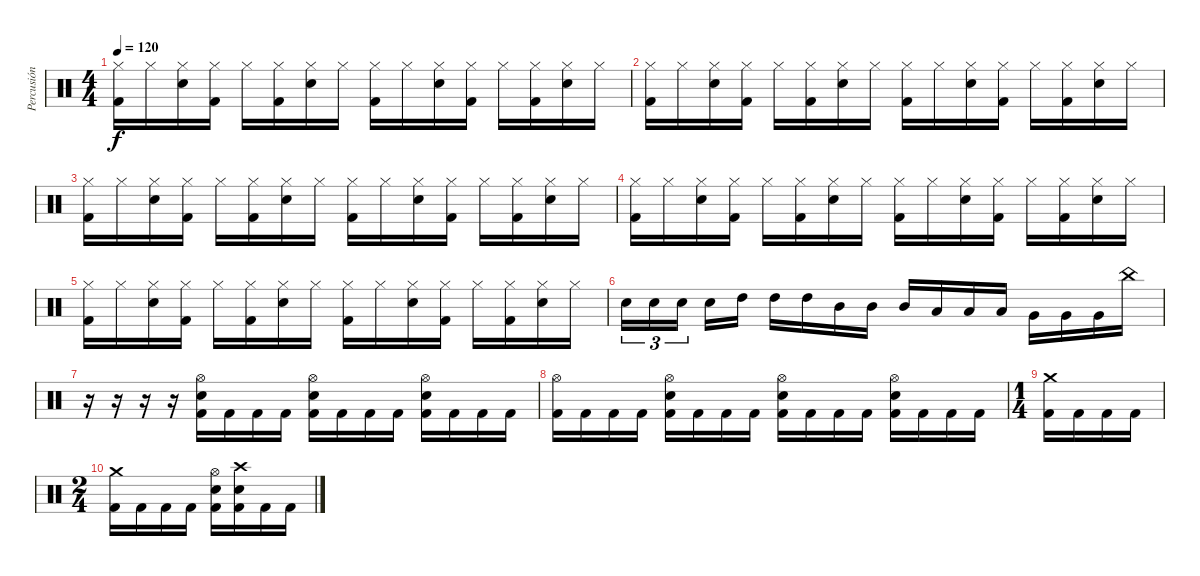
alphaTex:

\track ("Percusión" "Percusión") {instrument percussion}
\staff {score}
\articulation defaults
\ts (4 4)
\tempo 120
\clef neutral
\ks c
("Kick (hit) 2" "Hi-Hat (closed)").16{dy f} "Hi-Hat (closed)".16 ("Snare (hit) 2" "Hi-Hat (closed)").16 ("Kick (hit) 2" "Hi-Hat (closed)").16 "Hi-Hat (closed)".16 ("Kick (hit) 2" "Hi-Hat (closed)").16 ("Snare (hit) 2" "Hi-Hat (closed)").16 "Hi-Hat (closed)".16 ("Kick (hit) 2" "Hi-Hat (closed)").16 "Hi-Hat (closed)".16 ("Snare (hit) 2" "Hi-Hat (closed)").16 ("Kick (hit) 2" "Hi-Hat (closed)").16 "Hi-Hat (closed)".16 ("Kick (hit) 2" "Hi-Hat (closed)").16 ("Snare (hit) 2" "Hi-Hat (closed)").16 "Hi-Hat (closed)".16 |
("Kick (hit) 2" "Hi-Hat (closed)").16 "Hi-Hat (closed)".16 ("Snare (hit) 2" "Hi-Hat (closed)").16 ("Kick (hit) 2" "Hi-Hat (closed)").16 "Hi-Hat (closed)".16 ("Kick (hit) 2" "Hi-Hat (closed)").16 ("Snare (hit) 2" "Hi-Hat (closed)").16 "Hi-Hat (closed)".16 ("Kick (hit) 2" "Hi-Hat (closed)").16 "Hi-Hat (closed)".16 ("Snare (hit) 2" "Hi-Hat (closed)").16 ("Kick (hit) 2" "Hi-Hat (closed)").16 "Hi-Hat (closed)".16 ("Kick (hit) 2" "Hi-Hat (closed)").16 ("Snare (hit) 2" "Hi-Hat (closed)").16 "Hi-Hat (closed)".16 |
("Kick (hit) 2" "Hi-Hat (closed)").16 "Hi-Hat (closed)".16 ("Snare (hit) 2" "Hi-Hat (closed)").16 ("Kick (hit) 2" "Hi-Hat (closed)").16 "Hi-Hat (closed)".16 ("Kick (hit) 2" "Hi-Hat (closed)").16 ("Snare (hit) 2" "Hi-Hat (closed)").16 "Hi-Hat (closed)".16 ("Kick (hit) 2" "Hi-Hat (closed)").16 "Hi-Hat (closed)".16 ("Snare (hit) 2" "Hi-Hat (closed)").16 ("Kick (hit) 2" "Hi-Hat (closed)").16 "Hi-Hat (closed)".16 ("Kick (hit) 2" "Hi-Hat (closed)").16 ("Snare (hit) 2" "Hi-Hat (closed)").16 "Hi-Hat (closed)".16 |
("Kick (hit) 2" "Hi-Hat (closed)").16 "Hi-Hat (closed)".16 ("Snare (hit) 2" "Hi-Hat (closed)").16 ("Kick (hit) 2" "Hi-Hat (closed)").16 "Hi-Hat (closed)".16 ("Kick (hit) 2" "Hi-Hat (closed)").16 ("Snare (hit) 2" "Hi-Hat (closed)").16 "Hi-Hat (closed)".16 ("Kick (hit) 2" "Hi-Hat (closed)").16 "Hi-Hat (closed)".16 ("Snare (hit) 2" "Hi-Hat (closed)").16 ("Kick (hit) 2" "Hi-Hat (closed)").16 "Hi-Hat (closed)".16 ("Kick (hit) 2" "Hi-Hat (closed)").16 ("Snare (hit) 2" "Hi-Hat (closed)").16 "Hi-Hat (closed)".16 |
("Kick (hit) 2" "Hi-Hat (closed)").16 "Hi-Hat (closed)".16 ("Snare (hit) 2" "Hi-Hat (closed)").16 ("Kick (hit) 2" "Hi-Hat (closed)").16 "Hi-Hat (closed)".16 ("Kick (hit) 2" "Hi-Hat (closed)").16 ("Snare (hit) 2" "Hi-Hat (closed)").16 "Hi-Hat (closed)".16 ("Kick (hit) 2" "Hi-Hat (closed)").16 "Hi-Hat (closed)".16 ("Snare (hit) 2" "Hi-Hat (closed)").16 ("Kick (hit) 2" "Hi-Hat (closed)").16 "Hi-Hat (closed)".16 ("Kick (hit) 2" "Hi-Hat (closed)").16 ("Snare (hit) 2" "Hi-Hat (closed)").16 "Hi-Hat (closed)".16 |
"Electric Snare (hit)".16{tu (3 2)} "Electric Snare (hit)".16{tu (3 2)} "Electric Snare (hit)".16{tu (3 2) beam splitsecondary} "Electric Snare (hit)".16 "High Tom (hit)".16 "High Tom (hit)".16 "High Tom (hit)".16 "Mid Tom (hit)".16 "Mid Tom (hit)".16 "Mid Tom (hit)".16 "Low Tom (hit)".16 "Low Tom (hit)".16 "Low Tom (hit)".16 "Very Low Tom (hit)".16 "Very Low Tom (hit)".16 "Very Low Tom (hit)".16 "China (hit)".16 |
r.16 r.16 r.16 r.16 ("Hi-Hat (open)" "Snare (hit) 2" "Kick (hit) 2").16 "Kick (hit) 2".16 "Kick (hit) 2".16 "Kick (hit) 2".16 ("Hi-Hat (open)" "Snare (hit) 2" "Kick (hit) 2").16 "Kick (hit) 2".16 "Kick (hit) 2".16 "Kick (hit) 2".16 ("Hi-Hat (open)" "Snare (hit) 2" "Kick (hit) 2").16 "Kick (hit) 2".16 "Kick (hit) 2".16 "Kick (hit) 2".16 |
("Hi-Hat (open)" "Kick (hit) 2").16 "Kick (hit) 2".16 "Kick (hit) 2".16 "Kick (hit) 2".16 ("Hi-Hat (open)" "Snare (hit) 2" "Kick (hit) 2").16 "Kick (hit) 2".16 "Kick (hit) 2".16 "Kick (hit) 2".16 ("Hi-Hat (open)" "Snare (hit) 2" "Kick (hit) 2").16 "Kick (hit) 2".16 "Kick (hit) 2".16 "Kick (hit) 2".16 ("Hi-Hat (open)" "Snare (hit) 2" "Kick (hit) 2").16 "Kick (hit) 2".16 "Kick (hit) 2".16 "Kick (hit) 2".16 |
\ts (1 4)
("Crash medium (hit)" "Kick (hit) 2").16 "Kick (hit) 2".16 "Kick (hit) 2".16 "Kick (hit) 2".16 |
\ts (2 4)
("Crash medium (hit)" "Kick (hit) 2").16 "Kick (hit) 2".16 "Kick (hit) 2".16 "Kick (hit) 2".16 ("Hi-Hat (open)" "Snare (hit) 2" "Kick (hit) 2").16 ("Crash high (hit)" "Snare (hit) 2" "Kick (hit) 2").16 "Kick (hit) 2".16 "Kick (hit) 2".16
